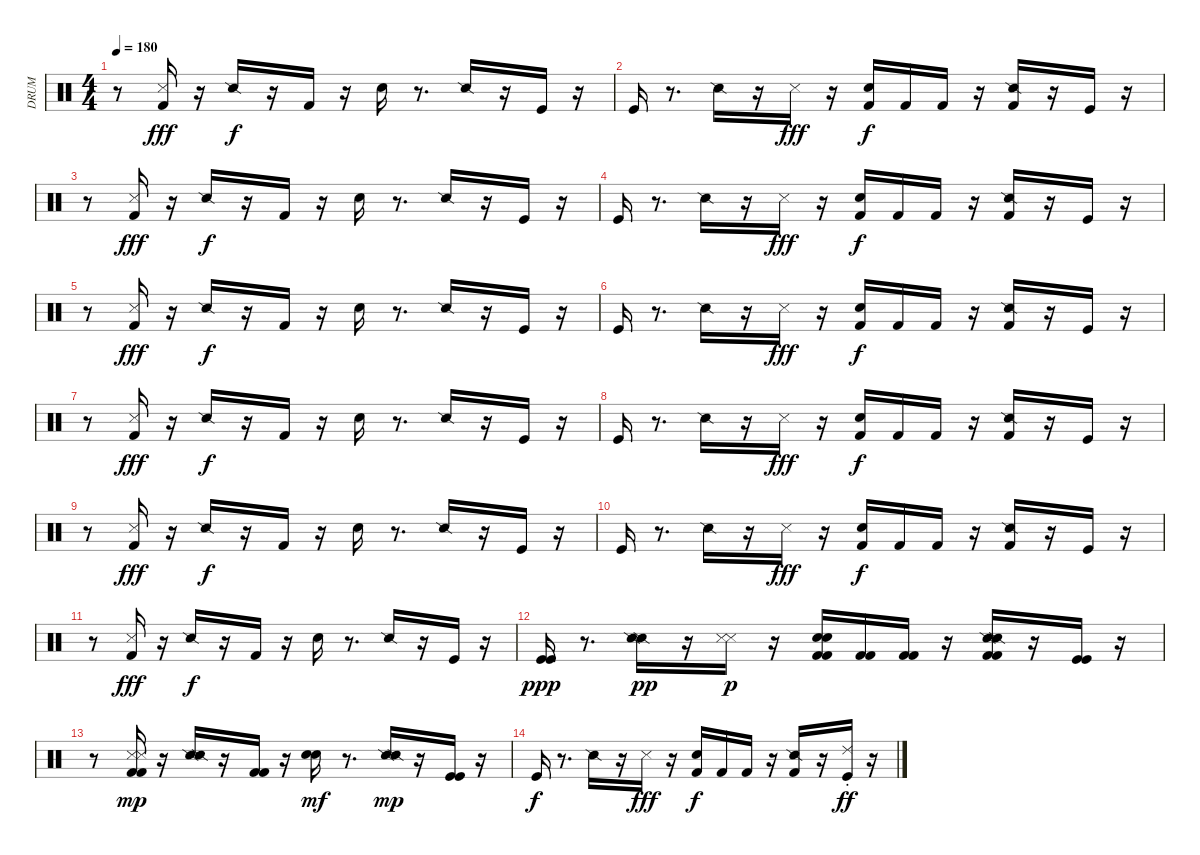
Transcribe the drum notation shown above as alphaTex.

\track ("DRUM" "DRUM") {instrument percussion}
\staff {score}
\articulation defaults
\ts (4 4)
\tempo 180
\clef neutral
\ks c
r.8{dy f} ("Snare (side stick) 3" "Kick (hit) 2").16{dy fff} r.16 "Snare (side stick) 2".16{dy f} r.16 "Kick (hit) 2".16 r.16 "Snare (hit) 2".16 r.8{d} "Snare (side stick) 2".16 r.16 "Kick (hit)".16 r.16 |
"Kick (hit)".16 r.8{d} "Snare (side stick) 2".16 r.16 "Snare (side stick) 3".16{dy fff} r.16 ("Kick (hit) 2" "Snare (hit) 2").16{dy f} "Kick (hit) 2".16 "Kick (hit) 2".16 r.16 ("Snare (side stick) 2" "Kick (hit) 2").16 r.16 "Kick (hit)".16 r.16 |
r.8 ("Snare (side stick) 3" "Kick (hit) 2").16{dy fff} r.16 "Snare (side stick) 2".16{dy f} r.16 "Kick (hit) 2".16 r.16 "Snare (hit) 2".16 r.8{d} "Snare (side stick) 2".16 r.16 "Kick (hit)".16 r.16 |
"Kick (hit)".16 r.8{d} "Snare (side stick) 2".16 r.16 "Snare (side stick) 3".16{dy fff} r.16 ("Kick (hit) 2" "Snare (hit) 2").16{dy f} "Kick (hit) 2".16 "Kick (hit) 2".16 r.16 ("Snare (side stick) 2" "Kick (hit) 2").16 r.16 "Kick (hit)".16 r.16 |
r.8 ("Snare (side stick) 3" "Kick (hit) 2").16{dy fff} r.16 "Snare (side stick) 2".16{dy f} r.16 "Kick (hit) 2".16 r.16 "Snare (hit) 2".16 r.8{d} "Snare (side stick) 2".16 r.16 "Kick (hit)".16 r.16 |
"Kick (hit)".16 r.8{d} "Snare (side stick) 2".16 r.16 "Snare (side stick) 3".16{dy fff} r.16 ("Kick (hit) 2" "Snare (hit) 2").16{dy f} "Kick (hit) 2".16 "Kick (hit) 2".16 r.16 ("Snare (side stick) 2" "Kick (hit) 2").16 r.16 "Kick (hit)".16 r.16 |
r.8 ("Snare (side stick) 3" "Kick (hit) 2").16{dy fff} r.16 "Snare (side stick) 2".16{dy f} r.16 "Kick (hit) 2".16 r.16 "Snare (hit) 2".16 r.8{d} "Snare (side stick) 2".16 r.16 "Kick (hit)".16 r.16 |
"Kick (hit)".16 r.8{d} "Snare (side stick) 2".16 r.16 "Snare (side stick) 3".16{dy fff} r.16 ("Kick (hit) 2" "Snare (hit) 2").16{dy f} "Kick (hit) 2".16 "Kick (hit) 2".16 r.16 ("Snare (side stick) 2" "Kick (hit) 2").16 r.16 "Kick (hit)".16 r.16 |
r.8 ("Snare (side stick) 3" "Kick (hit) 2").16{dy fff} r.16 "Snare (side stick) 2".16{dy f} r.16 "Kick (hit) 2".16 r.16 "Snare (hit) 2".16 r.8{d} "Snare (side stick) 2".16 r.16 "Kick (hit)".16 r.16 |
"Kick (hit)".16 r.8{d} "Snare (side stick) 2".16 r.16 "Snare (side stick) 3".16{dy fff} r.16 ("Kick (hit) 2" "Snare (hit) 2").16{dy f} "Kick (hit) 2".16 "Kick (hit) 2".16 r.16 ("Snare (side stick) 2" "Kick (hit) 2").16 r.16 "Kick (hit)".16 r.16 |
r.8 ("Snare (side stick) 3" "Kick (hit) 2").16{dy fff} r.16 "Snare (side stick) 2".16{dy f} r.16 "Kick (hit) 2".16 r.16 "Snare (hit) 2".16 r.8{d} "Snare (side stick) 2".16 r.16 "Kick (hit)".16 r.16 |
("Kick (hit)" "Kick (hit)").16{dy ppp} r.8{d} ("Snare (side stick) 2" "Snare (side stick) 2").16{dy pp} r.16 ("Snare (side stick) 3" "Snare (side stick) 3").16{dy p} r.16 ("Kick (hit) 2" "Snare (hit) 2" "Snare (hit) 2" "Kick (hit) 2").16 ("Kick (hit) 2" "Kick (hit) 2").16 ("Kick (hit) 2" "Kick (hit) 2").16 r.16 ("Snare (side stick) 2" "Kick (hit) 2" "Snare (side stick) 2" "Kick (hit) 2").16 r.16 ("Kick (hit)" "Kick (hit)").16 r.16 |
r.8 ("Snare (side stick) 3" "Kick (hit) 2" "Snare (side stick) 3" "Kick (hit) 2").16{dy mp} r.16 ("Snare (side stick) 2" "Snare (side stick) 2").16 r.16 ("Kick (hit) 2" "Kick (hit) 2").16 r.16 ("Snare (hit) 2" "Snare (hit) 2").16{dy mf} r.8{d} ("Snare (side stick) 2" "Snare (side stick) 2").16{dy mp} r.16 ("Kick (hit)" "Kick (hit)").16 r.16 |
"Kick (hit)".16{dy f} r.8{d} "Snare (side stick) 2".16 r.16 "Snare (side stick) 3".16{dy fff} r.16 ("Kick (hit) 2" "Snare (hit) 2").16{dy f} "Kick (hit) 2".16 "Kick (hit) 2".16 r.16 ("Snare (side stick) 2" "Kick (hit) 2").16 r.16 ("Ride (choke) 2" "Kick (hit)").16{dy ff} r.16
